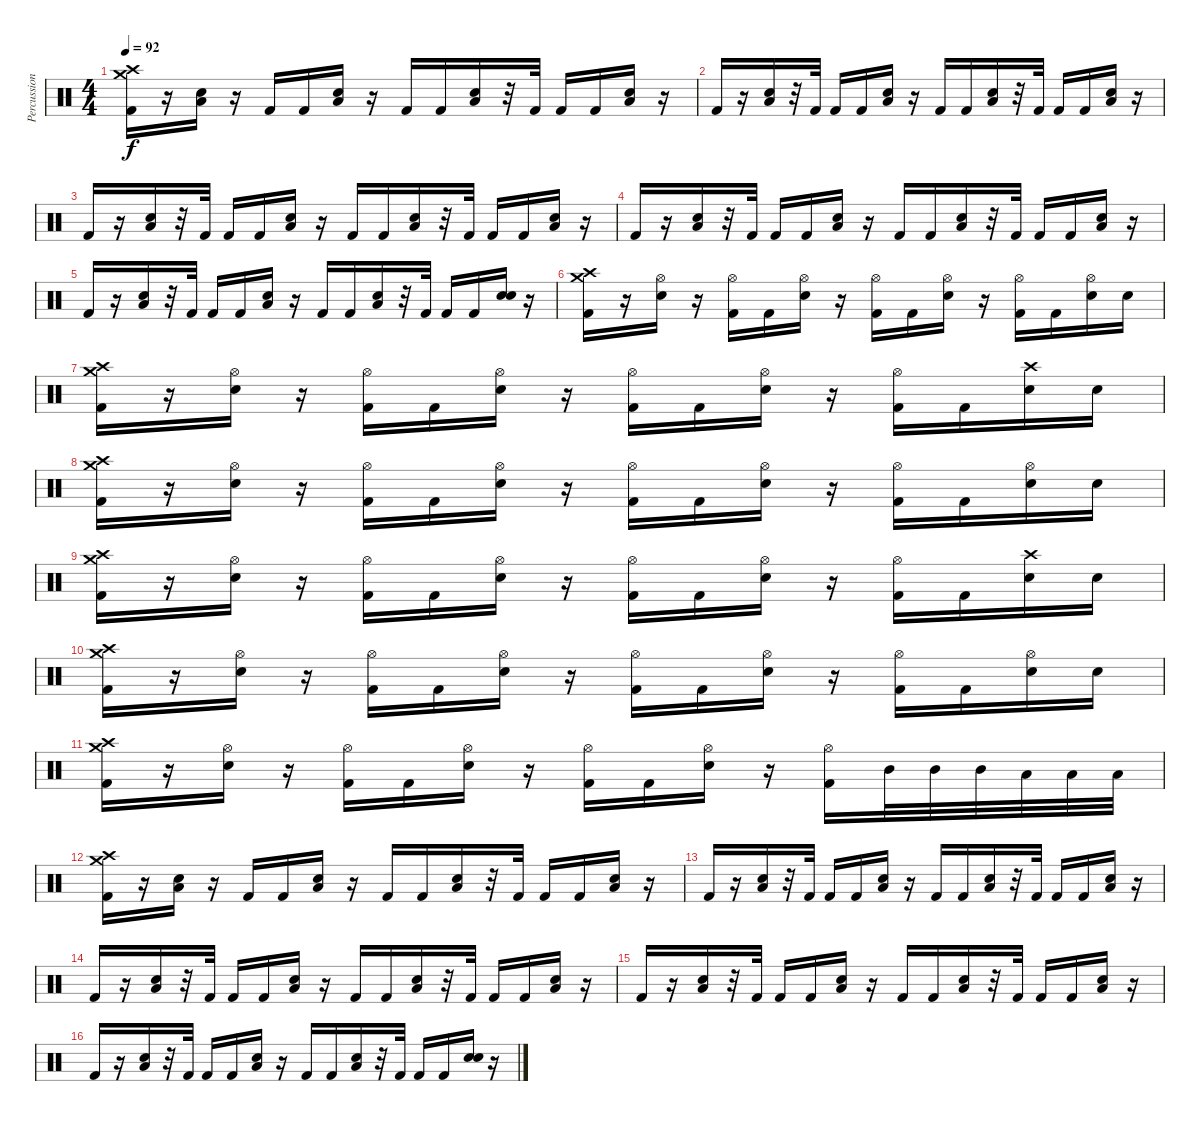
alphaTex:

\track ("Percussion" "Percussion") {instrument percussion}
\staff {score}
\articulation defaults
\ts (4 4)
\tempo 92
\clef neutral
\ks c
("Kick (hit) 2" "Crash high (hit)" "Crash medium (hit)").16{dy f} r.16 ("Electric Snare (hit)" "Low Floor Tom (hit)").16 r.16 "Kick (hit) 2".16 "Kick (hit) 2".16 ("Electric Snare (hit)" "Low Floor Tom (hit)").16 r.16 "Kick (hit) 2".16 "Kick (hit) 2".16 ("Electric Snare (hit)" "Low Floor Tom (hit)").16 r.32 "Kick (hit) 2".32 "Kick (hit) 2".16 "Kick (hit) 2".16 ("Electric Snare (hit)" "Low Floor Tom (hit)").16 r.16 |
"Kick (hit) 2".16 r.16 ("Electric Snare (hit)" "Low Floor Tom (hit)").16 r.32 "Kick (hit) 2".32 "Kick (hit) 2".16 "Kick (hit) 2".16 ("Electric Snare (hit)" "Low Floor Tom (hit)").16 r.16 "Kick (hit) 2".16 "Kick (hit) 2".16 ("Electric Snare (hit)" "Low Floor Tom (hit)").16 r.32 "Kick (hit) 2".32 "Kick (hit) 2".16 "Kick (hit) 2".16 ("Electric Snare (hit)" "Low Floor Tom (hit)").16 r.16 |
"Kick (hit) 2".16 r.16 ("Electric Snare (hit)" "Low Floor Tom (hit)").16 r.32 "Kick (hit) 2".32 "Kick (hit) 2".16 "Kick (hit) 2".16 ("Electric Snare (hit)" "Low Floor Tom (hit)").16 r.16 "Kick (hit) 2".16 "Kick (hit) 2".16 ("Electric Snare (hit)" "Low Floor Tom (hit)").16 r.32 "Kick (hit) 2".32 "Kick (hit) 2".16 "Kick (hit) 2".16 ("Electric Snare (hit)" "Low Floor Tom (hit)").16 r.16 |
"Kick (hit) 2".16 r.16 ("Electric Snare (hit)" "Low Floor Tom (hit)").16 r.32 "Kick (hit) 2".32 "Kick (hit) 2".16 "Kick (hit) 2".16 ("Electric Snare (hit)" "Low Floor Tom (hit)").16 r.16 "Kick (hit) 2".16 "Kick (hit) 2".16 ("Electric Snare (hit)" "Low Floor Tom (hit)").16 r.32 "Kick (hit) 2".32 "Kick (hit) 2".16 "Kick (hit) 2".16 ("Electric Snare (hit)" "Low Floor Tom (hit)").16 r.16 |
"Kick (hit) 2".16 r.16 ("Electric Snare (hit)" "Low Floor Tom (hit)").16 r.32 "Kick (hit) 2".32 "Kick (hit) 2".16 "Kick (hit) 2".16 ("Electric Snare (hit)" "Low Floor Tom (hit)").16 r.16 "Kick (hit) 2".16 "Kick (hit) 2".16 ("Electric Snare (hit)" "Low Floor Tom (hit)").16 r.32 "Kick (hit) 2".32 "Kick (hit) 2".16 "Kick (hit) 2".16 ("Electric Snare (hit)" "Snare (hit) 2").16 r.16 |
("Kick (hit) 2" "Crash high (hit)" "Crash medium (hit)").16 r.16 ("Electric Snare (hit)" "Hi-Hat (open)").16 r.16 ("Kick (hit) 2" "Hi-Hat (open)").16 "Kick (hit) 2".16 ("Electric Snare (hit)" "Hi-Hat (open)").16 r.16 ("Kick (hit) 2" "Hi-Hat (open)").16 "Kick (hit) 2".16 ("Electric Snare (hit)" "Hi-Hat (open)").16 r.16 ("Kick (hit) 2" "Hi-Hat (open)").16 "Kick (hit) 2".16 ("Electric Snare (hit)" "Hi-Hat (open)").16 "Snare (hit)"{x}.16 |
("Kick (hit) 2" "Crash high (hit)" "Crash medium (hit)").16 r.16 ("Electric Snare (hit)" "Hi-Hat (open)").16 r.16 ("Kick (hit) 2" "Hi-Hat (open)").16 "Kick (hit) 2".16 ("Electric Snare (hit)" "Hi-Hat (open)").16 r.16 ("Kick (hit) 2" "Hi-Hat (open)").16 "Kick (hit) 2".16 ("Electric Snare (hit)" "Hi-Hat (open)").16 r.16 ("Kick (hit) 2" "Hi-Hat (open)").16 "Kick (hit) 2".16 ("Electric Snare (hit)" "Crash high (hit)").16 "Snare (hit)"{x}.16 |
("Kick (hit) 2" "Crash high (hit)" "Crash medium (hit)").16 r.16 ("Electric Snare (hit)" "Hi-Hat (open)").16 r.16 ("Kick (hit) 2" "Hi-Hat (open)").16 "Kick (hit) 2".16 ("Electric Snare (hit)" "Hi-Hat (open)").16 r.16 ("Kick (hit) 2" "Hi-Hat (open)").16 "Kick (hit) 2".16 ("Electric Snare (hit)" "Hi-Hat (open)").16 r.16 ("Kick (hit) 2" "Hi-Hat (open)").16 "Kick (hit) 2".16 ("Electric Snare (hit)" "Hi-Hat (open)").16 "Snare (hit)"{x}.16 |
("Kick (hit) 2" "Crash high (hit)" "Crash medium (hit)").16 r.16 ("Electric Snare (hit)" "Hi-Hat (open)").16 r.16 ("Kick (hit) 2" "Hi-Hat (open)").16 "Kick (hit) 2".16 ("Electric Snare (hit)" "Hi-Hat (open)").16 r.16 ("Kick (hit) 2" "Hi-Hat (open)").16 "Kick (hit) 2".16 ("Electric Snare (hit)" "Hi-Hat (open)").16 r.16 ("Kick (hit) 2" "Hi-Hat (open)").16 "Kick (hit) 2".16 ("Electric Snare (hit)" "Crash high (hit)").16 "Snare (hit)"{x}.16 |
("Kick (hit) 2" "Crash high (hit)" "Crash medium (hit)").16 r.16 ("Electric Snare (hit)" "Hi-Hat (open)").16 r.16 ("Kick (hit) 2" "Hi-Hat (open)").16 "Kick (hit) 2".16 ("Electric Snare (hit)" "Hi-Hat (open)").16 r.16 ("Kick (hit) 2" "Hi-Hat (open)").16 "Kick (hit) 2".16 ("Electric Snare (hit)" "Hi-Hat (open)").16 r.16 ("Kick (hit) 2" "Hi-Hat (open)").16 "Kick (hit) 2".16 ("Electric Snare (hit)" "Hi-Hat (open)").16 "Electric Snare (hit)".16 |
("Kick (hit) 2" "Crash high (hit)" "Crash medium (hit)").16 r.16 ("Electric Snare (hit)" "Hi-Hat (open)").16 r.16 ("Kick (hit) 2" "Hi-Hat (open)").16 "Kick (hit) 2".16 ("Electric Snare (hit)" "Hi-Hat (open)").16 r.16 ("Kick (hit) 2" "Hi-Hat (open)").16 "Kick (hit) 2".16 ("Electric Snare (hit)" "Hi-Hat (open)").16 r.16 ("Kick (hit) 2" "Hi-Hat (open)").16 "Mid Tom (hit)".32 "Mid Tom (hit)".32 "Mid Tom (hit)".32 "Low Tom (hit)".32 "Low Tom (hit)".32 "Low Tom (hit)".32 |
("Kick (hit) 2" "Crash high (hit)" "Crash medium (hit)").16 r.16 ("Electric Snare (hit)" "Low Floor Tom (hit)").16 r.16 "Kick (hit) 2".16 "Kick (hit) 2".16 ("Electric Snare (hit)" "Low Floor Tom (hit)").16 r.16 "Kick (hit) 2".16 "Kick (hit) 2".16 ("Electric Snare (hit)" "Low Floor Tom (hit)").16 r.32 "Kick (hit) 2".32 "Kick (hit) 2".16 "Kick (hit) 2".16 ("Electric Snare (hit)" "Low Floor Tom (hit)").16 r.16 |
"Kick (hit) 2".16 r.16 ("Electric Snare (hit)" "Low Floor Tom (hit)").16 r.32 "Kick (hit) 2".32 "Kick (hit) 2".16 "Kick (hit) 2".16 ("Electric Snare (hit)" "Low Floor Tom (hit)").16 r.16 "Kick (hit) 2".16 "Kick (hit) 2".16 ("Electric Snare (hit)" "Low Floor Tom (hit)").16 r.32 "Kick (hit) 2".32 "Kick (hit) 2".16 "Kick (hit) 2".16 ("Electric Snare (hit)" "Low Floor Tom (hit)").16 r.16 |
"Kick (hit) 2".16 r.16 ("Electric Snare (hit)" "Low Floor Tom (hit)").16 r.32 "Kick (hit) 2".32 "Kick (hit) 2".16 "Kick (hit) 2".16 ("Electric Snare (hit)" "Low Floor Tom (hit)").16 r.16 "Kick (hit) 2".16 "Kick (hit) 2".16 ("Electric Snare (hit)" "Low Floor Tom (hit)").16 r.32 "Kick (hit) 2".32 "Kick (hit) 2".16 "Kick (hit) 2".16 ("Electric Snare (hit)" "Low Floor Tom (hit)").16 r.16 |
"Kick (hit) 2".16 r.16 ("Electric Snare (hit)" "Low Floor Tom (hit)").16 r.32 "Kick (hit) 2".32 "Kick (hit) 2".16 "Kick (hit) 2".16 ("Electric Snare (hit)" "Low Floor Tom (hit)").16 r.16 "Kick (hit) 2".16 "Kick (hit) 2".16 ("Electric Snare (hit)" "Low Floor Tom (hit)").16 r.32 "Kick (hit) 2".32 "Kick (hit) 2".16 "Kick (hit) 2".16 ("Electric Snare (hit)" "Low Floor Tom (hit)").16 r.16 |
"Kick (hit) 2".16 r.16 ("Electric Snare (hit)" "Low Floor Tom (hit)").16 r.32 "Kick (hit) 2".32 "Kick (hit) 2".16 "Kick (hit) 2".16 ("Electric Snare (hit)" "Low Floor Tom (hit)").16 r.16 "Kick (hit) 2".16 "Kick (hit) 2".16 ("Electric Snare (hit)" "Low Floor Tom (hit)").16 r.32 "Kick (hit) 2".32 "Kick (hit) 2".16 "Kick (hit) 2".16 ("Electric Snare (hit)" "Snare (hit) 2").16 r.16
